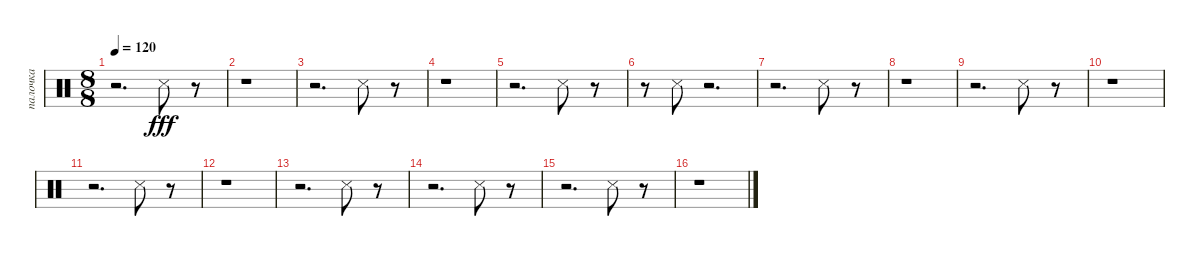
\track ("палочка" "палочка") {instrument percussion}
\staff {score}
\articulation defaults
\ts (8 8)
\tempo 120
\clef neutral
\ks c
r.2{d dy fff} "Snare (side stick) 3".8 r.8 |
r.1 |
r.2{d} "Snare (side stick) 3".8 r.8 |
r.1 |
r.2{d} "Snare (side stick) 3".8 r.8 |
r.8 "Snare (side stick) 3".8 r.2{d} |
r.2{d} "Snare (side stick) 3".8 r.8 |
r.1 |
r.2{d} "Snare (side stick) 3".8 r.8 |
r.1 |
r.2{d} "Snare (side stick) 3".8 r.8 |
r.1 |
r.2{d} "Snare (side stick) 3".8 r.8 |
r.2{d} "Snare (side stick) 3".8 r.8 |
r.2{d} "Snare (side stick) 3".8 r.8 |
r.1
